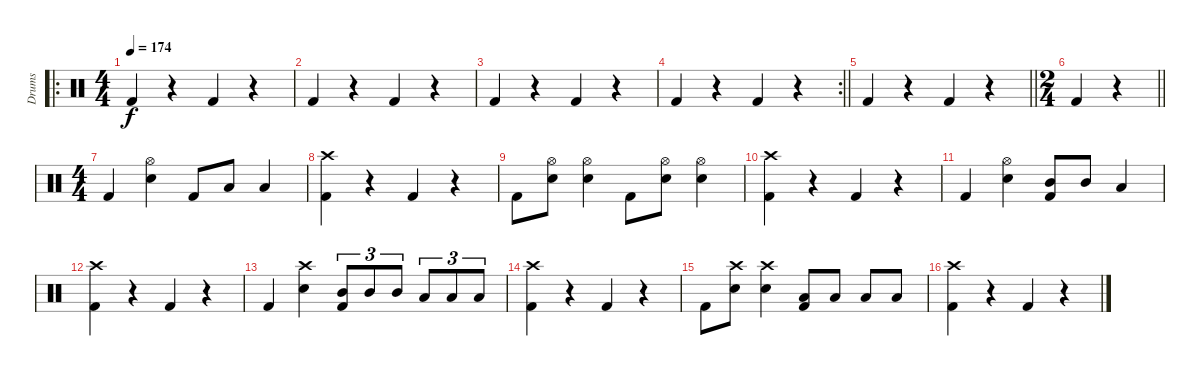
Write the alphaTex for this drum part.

\track ("Drums" "Drums") {instrument percussion}
\staff {score}
\articulation defaults
\ro
\ts (4 4)
\tempo 174
\clef neutral
\ks c "Kick (hit) 2".4{dy f}
r.4 "Kick (hit) 2".4 r.4 |
"Kick (hit) 2".4 r.4 "Kick (hit) 2".4 r.4 |
"Kick (hit) 2".4 r.4 "Kick (hit) 2".4 r.4 |
\rc 2
\barLineRight lightlight "Kick (hit) 2".4
r.4 "Kick (hit) 2".4 r.4 |
\barLineRight lightlight "Kick (hit) 2".4
r.4 "Kick (hit) 2".4 r.4 |
\ts (2 4)
\barLineRight lightlight "Kick (hit) 2".4
r.4 |
\ts (4 4)
"Kick (hit) 2".4 ("Hi-Hat (open)" "Snare (hit) 2").4 "Kick (hit) 2".8 "Low Floor Tom (hit)".8 "Low Floor Tom (hit)".4 |
("Crash high (hit)" "Kick (hit) 2").4 r.4 "Kick (hit) 2".4 r.4 |
"Kick (hit) 2".8 ("Hi-Hat (open)" "Snare (hit) 2").8 ("Hi-Hat (open)" "Snare (hit) 2").4 "Kick (hit) 2".8 ("Hi-Hat (open)" "Snare (hit) 2").8 ("Hi-Hat (open)" "Snare (hit) 2").4 |
("Crash high (hit)" "Kick (hit) 2").4 r.4 "Kick (hit) 2".4 r.4 |
"Kick (hit) 2".4 ("Hi-Hat (open)" "Snare (hit) 2").4 ("Mid Tom (hit)" "Kick (hit) 2").8 "Mid Tom (hit)".8 "Low Floor Tom (hit)".4 |
("Crash high (hit)" "Kick (hit) 2").4 r.4 "Kick (hit) 2".4 r.4 |
"Kick (hit) 2".4 ("Crash high (hit)" "Snare (hit) 2").4 ("Mid Tom (hit)" "Kick (hit) 2").8{tu (3 2)} "Mid Tom (hit)".8{tu (3 2)} "Mid Tom (hit)".8{tu (3 2)} "Low Floor Tom (hit)".8{tu (3 2)} "Low Floor Tom (hit)".8{tu (3 2)} "Low Floor Tom (hit)".8{tu (3 2)} |
("Crash high (hit)" "Kick (hit) 2").4 r.4 "Kick (hit) 2".4 r.4 |
"Kick (hit) 2".8 ("Crash high (hit)" "Snare (hit) 2").8 ("Crash high (hit)" "Snare (hit) 2").4 ("Low Floor Tom (hit)" "Kick (hit) 2").8 "Low Floor Tom (hit)".8 "Low Floor Tom (hit)".8 "Low Floor Tom (hit)".8 |
("Crash high (hit)" "Kick (hit) 2").4 r.4 "Kick (hit) 2".4 r.4
